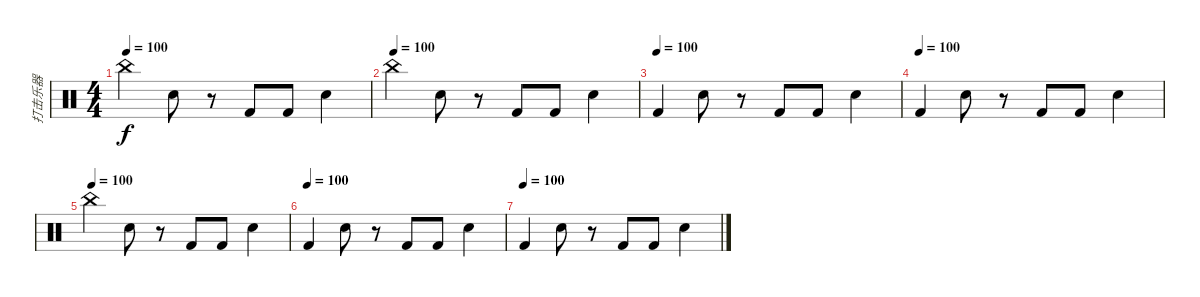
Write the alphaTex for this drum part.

\track ("打击乐器" "打击乐器") {instrument percussion}
\staff {score}
\articulation defaults
\ts (4 4)
\tempo 100
\clef neutral
\ks c "China (hit)".4{dy f} "Snare (hit) 2".8
r.8 "Kick (hit) 2".8 "Kick (hit) 2".8 "Snare (hit) 2".4 |
\tempo (100)
"China (hit)".4{volume 3} "Snare (hit) 2".8{volume 3} r.8 "Kick (hit) 2".8 "Kick (hit) 2".8 "Snare (hit) 2".4 |
\tempo (100)
"Kick (hit) 2".4 "Snare (hit) 2".8 r.8 "Kick (hit) 2".8 "Kick (hit) 2".8 "Snare (hit) 2".4 |
\tempo (100)
"Kick (hit) 2".4 "Snare (hit) 2".8 r.8 "Kick (hit) 2".8 "Kick (hit) 2".8 "Snare (hit) 2".4 |
\tempo (100)
"China (hit)".4 "Snare (hit) 2".8 r.8 "Kick (hit) 2".8 "Kick (hit) 2".8 "Snare (hit) 2".4 |
\tempo (100)
"Kick (hit) 2".4 "Snare (hit) 2".8 r.8 "Kick (hit) 2".8 "Kick (hit) 2".8 "Snare (hit) 2".4 |
\tempo (100)
"Kick (hit) 2".4 "Snare (hit) 2".8 r.8 "Kick (hit) 2".8 "Kick (hit) 2".8 "Snare (hit) 2".4
